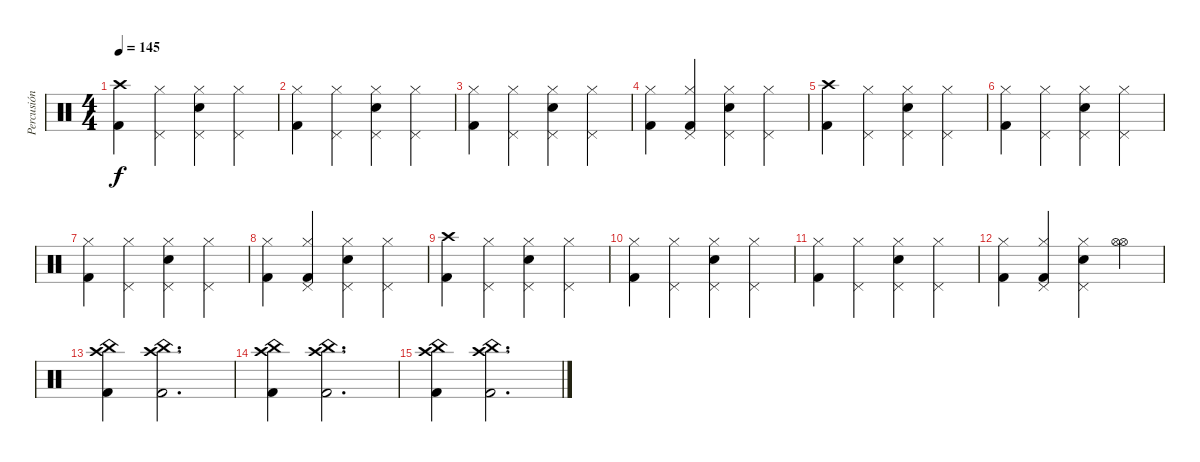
\track ("Percusión" "Percusión") {instrument percussion}
\staff {score}
\articulation defaults
\ts (4 4)
\tempo 145
\clef neutral
\ks c
("Crash high (hit)" "Kick (hit) 2").4{dy f} ("Hi-Hat (closed)" "Pedal Hi-Hat (hit)").4 ("Hi-Hat (closed)" "Pedal Hi-Hat (hit)" "Electric Snare (hit)").4 ("Hi-Hat (closed)" "Pedal Hi-Hat (hit)").4 |
("Hi-Hat (closed)" "Kick (hit) 2").4 ("Hi-Hat (closed)" "Pedal Hi-Hat (hit)").4 ("Hi-Hat (closed)" "Pedal Hi-Hat (hit)" "Electric Snare (hit)").4 ("Hi-Hat (closed)" "Pedal Hi-Hat (hit)").4 |
("Hi-Hat (closed)" "Kick (hit) 2").4 ("Hi-Hat (closed)" "Pedal Hi-Hat (hit)").4 ("Hi-Hat (closed)" "Pedal Hi-Hat (hit)" "Electric Snare (hit)").4 ("Hi-Hat (closed)" "Pedal Hi-Hat (hit)").4 |
("Hi-Hat (closed)" "Kick (hit) 2").4 ("Hi-Hat (closed)" "Pedal Hi-Hat (hit)" "Kick (hit) 2").4 ("Hi-Hat (closed)" "Pedal Hi-Hat (hit)" "Electric Snare (hit)").4 ("Hi-Hat (closed)" "Pedal Hi-Hat (hit)").4 |
("Crash high (hit)" "Kick (hit) 2").4 ("Hi-Hat (closed)" "Pedal Hi-Hat (hit)").4 ("Hi-Hat (closed)" "Pedal Hi-Hat (hit)" "Electric Snare (hit)").4 ("Hi-Hat (closed)" "Pedal Hi-Hat (hit)").4 |
("Hi-Hat (closed)" "Kick (hit) 2").4 ("Hi-Hat (closed)" "Pedal Hi-Hat (hit)").4 ("Hi-Hat (closed)" "Pedal Hi-Hat (hit)" "Electric Snare (hit)").4 ("Hi-Hat (closed)" "Pedal Hi-Hat (hit)").4 |
("Hi-Hat (closed)" "Kick (hit) 2").4 ("Hi-Hat (closed)" "Pedal Hi-Hat (hit)").4 ("Hi-Hat (closed)" "Pedal Hi-Hat (hit)" "Electric Snare (hit)").4 ("Hi-Hat (closed)" "Pedal Hi-Hat (hit)").4 |
("Hi-Hat (closed)" "Kick (hit) 2").4 ("Hi-Hat (closed)" "Pedal Hi-Hat (hit)" "Kick (hit) 2").4 ("Hi-Hat (closed)" "Pedal Hi-Hat (hit)" "Electric Snare (hit)").4 ("Hi-Hat (closed)" "Pedal Hi-Hat (hit)").4 |
("Crash high (hit)" "Kick (hit) 2").4 ("Hi-Hat (closed)" "Pedal Hi-Hat (hit)").4 ("Hi-Hat (closed)" "Pedal Hi-Hat (hit)" "Electric Snare (hit)").4 ("Hi-Hat (closed)" "Pedal Hi-Hat (hit)").4 |
("Hi-Hat (closed)" "Kick (hit) 2").4 ("Hi-Hat (closed)" "Pedal Hi-Hat (hit)").4 ("Hi-Hat (closed)" "Pedal Hi-Hat (hit)" "Electric Snare (hit)").4 ("Hi-Hat (closed)" "Pedal Hi-Hat (hit)").4 |
("Hi-Hat (closed)" "Kick (hit) 2").4 ("Hi-Hat (closed)" "Pedal Hi-Hat (hit)").4 ("Hi-Hat (closed)" "Pedal Hi-Hat (hit)" "Electric Snare (hit)").4 ("Hi-Hat (closed)" "Pedal Hi-Hat (hit)").4 |
("Hi-Hat (closed)" "Kick (hit) 2").4 ("Hi-Hat (closed)" "Pedal Hi-Hat (hit)" "Kick (hit) 2").4 ("Hi-Hat (closed)" "Pedal Hi-Hat (hit)" "Electric Snare (hit)").4 ("Hi-Hat (open)" "Hi-Hat (open)").4 |
("Crash high (hit)" "China (hit)" "Kick (hit) 2").4 ("Crash high (hit)" "China (hit)" "Kick (hit) 2").2{d} |
("Crash high (hit)" "China (hit)" "Kick (hit) 2").4 ("Crash high (hit)" "China (hit)" "Kick (hit) 2").2{d} |
("Crash high (hit)" "China (hit)" "Kick (hit) 2").4 ("Crash high (hit)" "China (hit)" "Kick (hit) 2").2{d}
